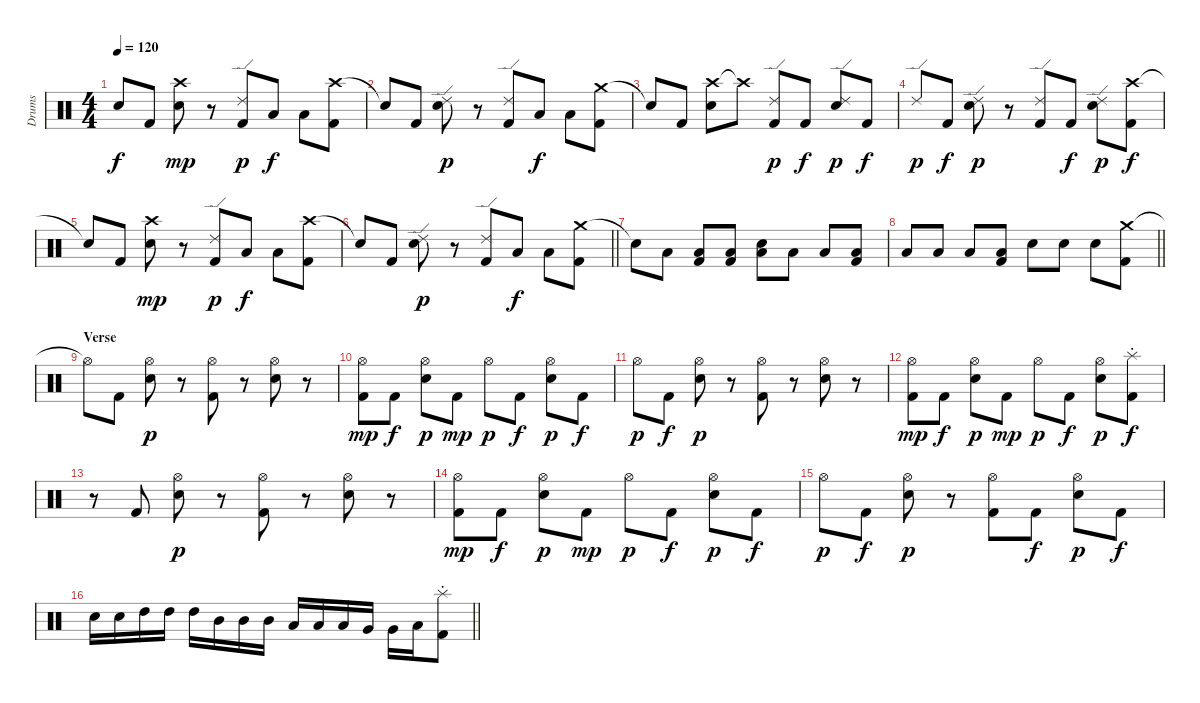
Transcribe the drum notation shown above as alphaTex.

\track ("Drums" "Drums") {instrument percussion}
\staff {score}
\articulation defaults
\ts (4 4)
\tempo 120
\clef neutral
\ks c "Snare (hit)"{t}.8{dy f} "Kick (hit) 2".8
("Crash high (hit)" "Electric Snare (hit)").8{dy mp} r.8 ("Ride (edge) 2" "Kick (hit) 2").8{dy p} "Low Tom (hit)".8{dy f} "Low Tom (hit)".8 ("Crash high (hit)" "Kick (hit) 2").8 |
"Snare (hit)"{t}.8 "Kick (hit) 2".8 ("Ride (edge) 2" "Electric Snare (hit)").8{dy p} r.8 ("Ride (edge) 2" "Kick (hit) 2").8 "Low Tom (hit)".8{dy f} "Low Tom (hit)".8 ("Crash medium (hit)" "Kick (hit) 2").8 |
"Snare (hit)"{t}.8 "Kick (hit) 2".8 ("Crash high (hit)" "Electric Snare (hit)").8 "Crash high (hit)"{t}.8 ("Ride (edge) 2" "Kick (hit) 2").8{dy p} "Kick (hit) 2".8{dy f} ("Ride (edge) 2" "Electric Snare (hit)").8{dy p} "Kick (hit) 2".8{dy f} |
"Ride (edge) 2".8{dy p} "Kick (hit) 2".8{dy f} ("Ride (edge) 2" "Electric Snare (hit)").8{dy p} r.8 ("Ride (edge) 2" "Kick (hit) 2").8 "Kick (hit) 2".8{dy f} ("Ride (edge) 2" "Electric Snare (hit)").8{dy p} ("Crash high (hit)" "Kick (hit) 2").8{dy f} |
"Snare (hit)"{t}.8 "Kick (hit) 2".8 ("Crash high (hit)" "Electric Snare (hit)").8{dy mp} r.8 ("Ride (edge) 2" "Kick (hit) 2").8{dy p} "Low Tom (hit)".8{dy f} "Low Tom (hit)".8 ("Crash high (hit)" "Kick (hit) 2").8 |
\barLineRight lightlight "Snare (hit)"{t}.8 "Kick (hit) 2".8
("Ride (edge) 2" "Electric Snare (hit)").8{dy p} r.8 ("Ride (edge) 2" "Kick (hit) 2").8 "Low Tom (hit)".8{dy f} "Low Tom (hit)".8 ("Crash medium (hit)" "Kick (hit) 2").8 |
"Snare (hit)"{t}.8 "Low Floor Tom (hit)".8 ("Low Floor Tom (hit)" "Kick (hit) 2").8 ("Low Floor Tom (hit)" "Kick (hit) 2").8 ("Electric Snare (hit)" "Low Floor Tom (hit)").8 "Low Floor Tom (hit)".8 "Low Floor Tom (hit)".8 ("Low Floor Tom (hit)" "Kick (hit) 2").8 |
\barLineRight lightlight "Low Floor Tom (hit)".8 "Low Floor Tom (hit)".8 "Low Floor Tom (hit)".8
("Low Floor Tom (hit)" "Kick (hit) 2").8 "Electric Snare (hit)".8 "Electric Snare (hit)".8 "Electric Snare (hit)".8 ("Crash medium (hit)" "Kick (hit) 2").8 |
\section ("" "Verse")
"Hi-Hat (open)"{t}.8 "Kick (hit) 2".8 ("Hi-Hat (open)" "Electric Snare (hit)").8{dy p} r.8 ("Hi-Hat (open)" "Kick (hit) 2").8 r.8 ("Hi-Hat (open)" "Electric Snare (hit)").8 r.8 |
("Hi-Hat (open)" "Kick (hit) 2").8{dy mp} "Kick (hit) 2".8{dy f} ("Hi-Hat (open)" "Electric Snare (hit)").8{dy p} "Kick (hit) 2".8{dy mp} "Hi-Hat (open)".8{dy p} "Kick (hit) 2".8{dy f} ("Hi-Hat (open)" "Electric Snare (hit)").8{dy p} "Kick (hit) 2".8{dy f} |
"Hi-Hat (open)".8{dy p} "Kick (hit) 2".8{dy f} ("Hi-Hat (open)" "Electric Snare (hit)").8{dy p} r.8 ("Hi-Hat (open)" "Kick (hit) 2").8 r.8 ("Hi-Hat (open)" "Electric Snare (hit)").8 r.8 |
("Hi-Hat (open)" "Kick (hit) 2").8{dy mp} "Kick (hit) 2".8{dy f} ("Hi-Hat (open)" "Electric Snare (hit)").8{dy p} "Kick (hit) 2".8{dy mp} "Hi-Hat (open)".8{dy p} "Kick (hit) 2".8{dy f} ("Hi-Hat (open)" "Electric Snare (hit)").8{dy p} ("Splash (hit)"{st} "Kick (hit) 2").8{dy f} |
r.8 "Kick (hit) 2".8 ("Hi-Hat (open)" "Electric Snare (hit)").8{dy p} r.8 ("Hi-Hat (open)" "Kick (hit) 2").8 r.8 ("Hi-Hat (open)" "Electric Snare (hit)").8 r.8 |
("Hi-Hat (open)" "Kick (hit) 2").8{dy mp} "Kick (hit) 2".8{dy f} ("Hi-Hat (open)" "Electric Snare (hit)").8{dy p} "Kick (hit) 2".8{dy mp} "Hi-Hat (open)".8{dy p} "Kick (hit) 2".8{dy f} ("Hi-Hat (open)" "Electric Snare (hit)").8{dy p} "Kick (hit) 2".8{dy f} |
"Hi-Hat (open)".8{dy p} "Kick (hit) 2".8{dy f} ("Hi-Hat (open)" "Electric Snare (hit)").8{dy p} r.8 ("Hi-Hat (open)" "Kick (hit) 2").8 "Kick (hit) 2".8{dy f} ("Hi-Hat (open)" "Electric Snare (hit)").8{dy p} "Kick (hit) 2".8{dy f} |
\barLineRight lightlight "Electric Snare (hit)".16 "Electric Snare (hit)".16 "High Tom (hit)".16 "High Tom (hit)".16 "High Tom (hit)".16 "Mid Tom (hit)".16 "Mid Tom (hit)".16 "Mid Tom (hit)".16 "Low Tom (hit)".16 "Low Tom (hit)".16 "Low Tom (hit)".16 "Very Low Tom (hit)".16 "Very Low Tom (hit)".16 "Low Floor Tom (hit)".16
("Splash (hit)"{st} "Kick (hit) 2").8
